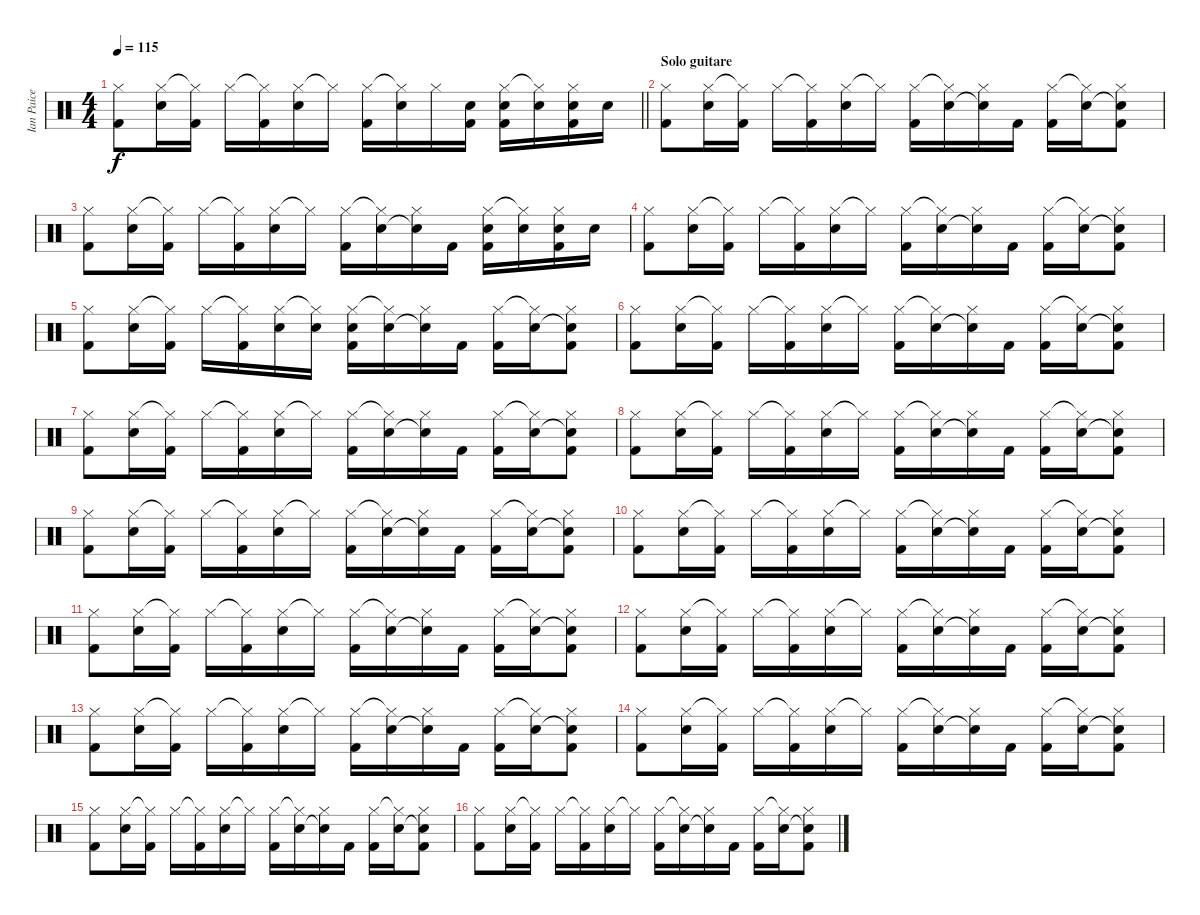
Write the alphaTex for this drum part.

\track ("Ian Paice" "Ian Paice") {instrument percussion}
\staff {score}
\articulation defaults
\ts (4 4)
\tempo 115
\clef neutral
\barLineRight lightlight
\ks c
("Hi-Hat (closed)" "Kick (hit) 2").8{dy f} ("Hi-Hat (closed)" "Snare (hit) 2").16 ("Hi-Hat (closed)"{t} "Kick (hit) 2").16 "Hi-Hat (closed)".16 ("Hi-Hat (closed)"{t} "Kick (hit) 2").16 ("Hi-Hat (closed)" "Snare (hit) 2").16 "Hi-Hat (closed)"{t}.16 ("Hi-Hat (closed)" "Kick (hit) 2").16 ("Hi-Hat (closed)"{t} "Snare (hit) 2").16 "Hi-Hat (closed)".16 ("Snare (hit) 2" "Kick (hit) 2").16 ("Hi-Hat (closed)" "Snare (hit) 2" "Kick (hit) 2").16 ("Hi-Hat (closed)"{t} "Snare (hit) 2").16 ("Hi-Hat (closed)" "Snare (hit) 2" "Kick (hit) 2").16 "Snare (hit) 2".16 |
\section ("" "Solo guitare")
("Hi-Hat (closed)" "Kick (hit) 2").8 ("Hi-Hat (closed)" "Snare (hit) 2").16 ("Hi-Hat (closed)"{t} "Kick (hit) 2").16 "Hi-Hat (closed)".16 ("Hi-Hat (closed)"{t} "Kick (hit) 2").16 ("Hi-Hat (closed)" "Snare (hit) 2").16 "Hi-Hat (closed)"{t}.16 ("Hi-Hat (closed)" "Kick (hit) 2").16 ("Hi-Hat (closed)"{t} "Snare (hit) 2").16 ("Hi-Hat (closed)" "Snare (hit) 2"{t}).16 "Kick (hit) 2".16 ("Hi-Hat (closed)" "Kick (hit) 2").16 ("Hi-Hat (closed)"{t} "Snare (hit) 2").16 ("Hi-Hat (closed)" "Snare (hit) 2"{t} "Kick (hit) 2").8 |
("Hi-Hat (closed)" "Kick (hit) 2").8 ("Hi-Hat (closed)" "Snare (hit) 2").16 ("Hi-Hat (closed)"{t} "Kick (hit) 2").16 "Hi-Hat (closed)".16 ("Hi-Hat (closed)"{t} "Kick (hit) 2").16 ("Hi-Hat (closed)" "Snare (hit) 2").16 "Hi-Hat (closed)"{t}.16 ("Hi-Hat (closed)" "Kick (hit) 2").16 ("Hi-Hat (closed)"{t} "Snare (hit) 2").16 ("Hi-Hat (closed)" "Snare (hit) 2"{t}).16 "Kick (hit) 2".16 ("Hi-Hat (closed)" "Snare (hit) 2" "Kick (hit) 2").16 ("Hi-Hat (closed)"{t} "Snare (hit) 2").16 ("Hi-Hat (closed)" "Snare (hit) 2" "Kick (hit) 2").16 "Snare (hit) 2".16 |
("Hi-Hat (closed)" "Kick (hit) 2").8 ("Hi-Hat (closed)" "Snare (hit) 2").16 ("Hi-Hat (closed)"{t} "Kick (hit) 2").16 "Hi-Hat (closed)".16 ("Hi-Hat (closed)"{t} "Kick (hit) 2").16 ("Hi-Hat (closed)" "Snare (hit) 2").16 "Hi-Hat (closed)"{t}.16 ("Hi-Hat (closed)" "Kick (hit) 2").16 ("Hi-Hat (closed)"{t} "Snare (hit) 2").16 ("Hi-Hat (closed)" "Snare (hit) 2"{t}).16 "Kick (hit) 2".16 ("Hi-Hat (closed)" "Kick (hit) 2").16 ("Hi-Hat (closed)"{t} "Snare (hit) 2").16 ("Hi-Hat (closed)" "Snare (hit) 2"{t} "Kick (hit) 2").8 |
("Hi-Hat (closed)" "Kick (hit) 2").8 ("Hi-Hat (closed)" "Snare (hit) 2").16 ("Hi-Hat (closed)"{t} "Kick (hit) 2").16 "Hi-Hat (closed)".16 ("Hi-Hat (closed)"{t} "Kick (hit) 2").16 ("Hi-Hat (closed)" "Snare (hit) 2").16 ("Hi-Hat (closed)"{t} "Snare (hit) 2").16 ("Hi-Hat (closed)" "Snare (hit) 2" "Kick (hit) 2").16 ("Hi-Hat (closed)"{t} "Snare (hit) 2").16 ("Hi-Hat (closed)" "Snare (hit) 2"{t}).16 "Kick (hit) 2".16 ("Hi-Hat (closed)" "Kick (hit) 2").16 ("Hi-Hat (closed)"{t} "Snare (hit) 2").16 ("Hi-Hat (closed)" "Snare (hit) 2"{t} "Kick (hit) 2").8 |
("Hi-Hat (closed)" "Kick (hit) 2").8 ("Hi-Hat (closed)" "Snare (hit) 2").16 ("Hi-Hat (closed)"{t} "Kick (hit) 2").16 "Hi-Hat (closed)".16 ("Hi-Hat (closed)"{t} "Kick (hit) 2").16 ("Hi-Hat (closed)" "Snare (hit) 2").16 "Hi-Hat (closed)"{t}.16 ("Hi-Hat (closed)" "Kick (hit) 2").16 ("Hi-Hat (closed)"{t} "Snare (hit) 2").16 ("Hi-Hat (closed)" "Snare (hit) 2"{t}).16 "Kick (hit) 2".16 ("Hi-Hat (closed)" "Kick (hit) 2").16 ("Hi-Hat (closed)"{t} "Snare (hit) 2").16 ("Hi-Hat (closed)" "Snare (hit) 2"{t} "Kick (hit) 2").8 |
("Hi-Hat (closed)" "Kick (hit) 2").8 ("Hi-Hat (closed)" "Snare (hit) 2").16 ("Hi-Hat (closed)"{t} "Kick (hit) 2").16 "Hi-Hat (closed)".16 ("Hi-Hat (closed)"{t} "Kick (hit) 2").16 ("Hi-Hat (closed)" "Snare (hit) 2").16 "Hi-Hat (closed)"{t}.16 ("Hi-Hat (closed)" "Kick (hit) 2").16 ("Hi-Hat (closed)"{t} "Snare (hit) 2").16 ("Hi-Hat (closed)" "Snare (hit) 2"{t}).16 "Kick (hit) 2".16 ("Hi-Hat (closed)" "Kick (hit) 2").16 ("Hi-Hat (closed)"{t} "Snare (hit) 2").16 ("Hi-Hat (closed)" "Snare (hit) 2"{t} "Kick (hit) 2").8 |
("Hi-Hat (closed)" "Kick (hit) 2").8 ("Hi-Hat (closed)" "Snare (hit) 2").16 ("Hi-Hat (closed)"{t} "Kick (hit) 2").16 "Hi-Hat (closed)".16 ("Hi-Hat (closed)"{t} "Kick (hit) 2").16 ("Hi-Hat (closed)" "Snare (hit) 2").16 "Hi-Hat (closed)"{t}.16 ("Hi-Hat (closed)" "Kick (hit) 2").16 ("Hi-Hat (closed)"{t} "Snare (hit) 2").16 ("Hi-Hat (closed)" "Snare (hit) 2"{t}).16 "Kick (hit) 2".16 ("Hi-Hat (closed)" "Kick (hit) 2").16 ("Hi-Hat (closed)"{t} "Snare (hit) 2").16 ("Hi-Hat (closed)" "Snare (hit) 2"{t} "Kick (hit) 2").8 |
("Hi-Hat (closed)" "Kick (hit) 2").8 ("Hi-Hat (closed)" "Snare (hit) 2").16 ("Hi-Hat (closed)"{t} "Kick (hit) 2").16 "Hi-Hat (closed)".16 ("Hi-Hat (closed)"{t} "Kick (hit) 2").16 ("Hi-Hat (closed)" "Snare (hit) 2").16 "Hi-Hat (closed)"{t}.16 ("Hi-Hat (closed)" "Kick (hit) 2").16 ("Hi-Hat (closed)"{t} "Snare (hit) 2").16 ("Hi-Hat (closed)" "Snare (hit) 2"{t}).16 "Kick (hit) 2".16 ("Hi-Hat (closed)" "Kick (hit) 2").16 ("Hi-Hat (closed)"{t} "Snare (hit) 2").16 ("Hi-Hat (closed)" "Snare (hit) 2"{t} "Kick (hit) 2").8 |
("Hi-Hat (closed)" "Kick (hit) 2").8 ("Hi-Hat (closed)" "Snare (hit) 2").16 ("Hi-Hat (closed)"{t} "Kick (hit) 2").16 "Hi-Hat (closed)".16 ("Hi-Hat (closed)"{t} "Kick (hit) 2").16 ("Hi-Hat (closed)" "Snare (hit) 2").16 "Hi-Hat (closed)"{t}.16 ("Hi-Hat (closed)" "Kick (hit) 2").16 ("Hi-Hat (closed)"{t} "Snare (hit) 2").16 ("Hi-Hat (closed)" "Snare (hit) 2"{t}).16 "Kick (hit) 2".16 ("Hi-Hat (closed)" "Kick (hit) 2").16 ("Hi-Hat (closed)"{t} "Snare (hit) 2").16 ("Hi-Hat (closed)" "Snare (hit) 2"{t} "Kick (hit) 2").8 |
("Hi-Hat (closed)" "Kick (hit) 2").8 ("Hi-Hat (closed)" "Snare (hit) 2").16 ("Hi-Hat (closed)"{t} "Kick (hit) 2").16 "Hi-Hat (closed)".16 ("Hi-Hat (closed)"{t} "Kick (hit) 2").16 ("Hi-Hat (closed)" "Snare (hit) 2").16 "Hi-Hat (closed)"{t}.16 ("Hi-Hat (closed)" "Kick (hit) 2").16 ("Hi-Hat (closed)"{t} "Snare (hit) 2").16 ("Hi-Hat (closed)" "Snare (hit) 2"{t}).16 "Kick (hit) 2".16 ("Hi-Hat (closed)" "Kick (hit) 2").16 ("Hi-Hat (closed)"{t} "Snare (hit) 2").16 ("Hi-Hat (closed)" "Snare (hit) 2"{t} "Kick (hit) 2").8 |
("Hi-Hat (closed)" "Kick (hit) 2").8 ("Hi-Hat (closed)" "Snare (hit) 2").16 ("Hi-Hat (closed)"{t} "Kick (hit) 2").16 "Hi-Hat (closed)".16 ("Hi-Hat (closed)"{t} "Kick (hit) 2").16 ("Hi-Hat (closed)" "Snare (hit) 2").16 "Hi-Hat (closed)"{t}.16 ("Hi-Hat (closed)" "Kick (hit) 2").16 ("Hi-Hat (closed)"{t} "Snare (hit) 2").16 ("Hi-Hat (closed)" "Snare (hit) 2"{t}).16 "Kick (hit) 2".16 ("Hi-Hat (closed)" "Kick (hit) 2").16 ("Hi-Hat (closed)"{t} "Snare (hit) 2").16 ("Hi-Hat (closed)" "Snare (hit) 2"{t} "Kick (hit) 2").8 |
("Hi-Hat (closed)" "Kick (hit) 2").8 ("Hi-Hat (closed)" "Snare (hit) 2").16 ("Hi-Hat (closed)"{t} "Kick (hit) 2").16 "Hi-Hat (closed)".16 ("Hi-Hat (closed)"{t} "Kick (hit) 2").16 ("Hi-Hat (closed)" "Snare (hit) 2").16 "Hi-Hat (closed)"{t}.16 ("Hi-Hat (closed)" "Kick (hit) 2").16 ("Hi-Hat (closed)"{t} "Snare (hit) 2").16 ("Hi-Hat (closed)" "Snare (hit) 2"{t}).16 "Kick (hit) 2".16 ("Hi-Hat (closed)" "Kick (hit) 2").16 ("Hi-Hat (closed)"{t} "Snare (hit) 2").16 ("Hi-Hat (closed)" "Snare (hit) 2"{t} "Kick (hit) 2").8 |
("Hi-Hat (closed)" "Kick (hit) 2").8 ("Hi-Hat (closed)" "Snare (hit) 2").16 ("Hi-Hat (closed)"{t} "Kick (hit) 2").16 "Hi-Hat (closed)".16 ("Hi-Hat (closed)"{t} "Kick (hit) 2").16 ("Hi-Hat (closed)" "Snare (hit) 2").16 "Hi-Hat (closed)"{t}.16 ("Hi-Hat (closed)" "Kick (hit) 2").16 ("Hi-Hat (closed)"{t} "Snare (hit) 2").16 ("Hi-Hat (closed)" "Snare (hit) 2"{t}).16 "Kick (hit) 2".16 ("Hi-Hat (closed)" "Kick (hit) 2").16 ("Hi-Hat (closed)"{t} "Snare (hit) 2").16 ("Hi-Hat (closed)" "Snare (hit) 2"{t} "Kick (hit) 2").8 |
("Hi-Hat (closed)" "Kick (hit) 2").8 ("Hi-Hat (closed)" "Snare (hit) 2").16 ("Hi-Hat (closed)"{t} "Kick (hit) 2").16 "Hi-Hat (closed)".16 ("Hi-Hat (closed)"{t} "Kick (hit) 2").16 ("Hi-Hat (closed)" "Snare (hit) 2").16 "Hi-Hat (closed)"{t}.16 ("Hi-Hat (closed)" "Kick (hit) 2").16 ("Hi-Hat (closed)"{t} "Snare (hit) 2").16 ("Hi-Hat (closed)" "Snare (hit) 2"{t}).16 "Kick (hit) 2".16 ("Hi-Hat (closed)" "Kick (hit) 2").16 ("Hi-Hat (closed)"{t} "Snare (hit) 2").16 ("Hi-Hat (closed)" "Snare (hit) 2"{t} "Kick (hit) 2").8 |
("Hi-Hat (closed)" "Kick (hit) 2").8 ("Hi-Hat (closed)" "Snare (hit) 2").16 ("Hi-Hat (closed)"{t} "Kick (hit) 2").16 "Hi-Hat (closed)".16 ("Hi-Hat (closed)"{t} "Kick (hit) 2").16 ("Hi-Hat (closed)" "Snare (hit) 2").16 "Hi-Hat (closed)"{t}.16 ("Hi-Hat (closed)" "Kick (hit) 2").16 ("Hi-Hat (closed)"{t} "Snare (hit) 2").16 ("Hi-Hat (closed)" "Snare (hit) 2"{t}).16 "Kick (hit) 2".16 ("Hi-Hat (closed)" "Kick (hit) 2").16 ("Hi-Hat (closed)"{t} "Snare (hit) 2").16 ("Hi-Hat (closed)" "Snare (hit) 2"{t} "Kick (hit) 2").8
